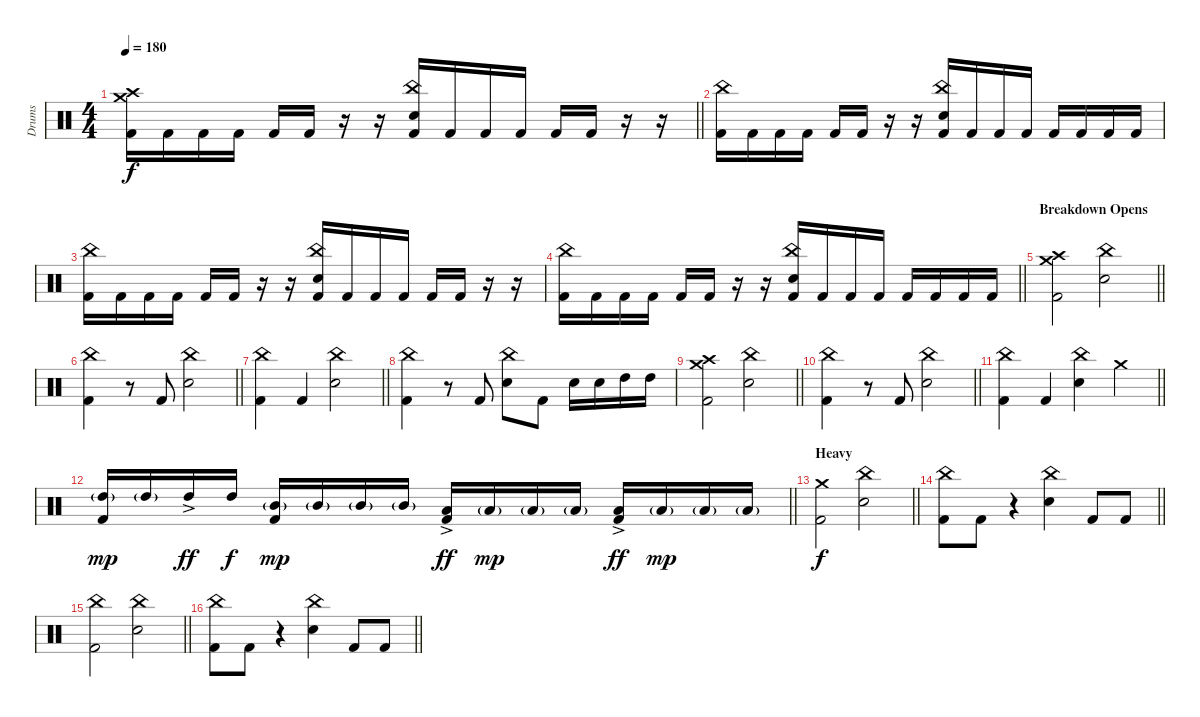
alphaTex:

\track ("Drums" "Drums") {instrument percussion}
\staff {score}
\articulation defaults
\ts (4 4)
\tempo 180
\clef neutral
\barLineRight lightlight
\ks c
("Crash medium (hit)" "Crash high (hit)" "Kick (hit) 2").16{dy f} "Kick (hit) 2".16 "Kick (hit) 2".16 "Kick (hit) 2".16 "Kick (hit) 2".16 "Kick (hit) 2".16 r.16 r.16 ("China (hit)" "Snare (hit) 2" "Kick (hit) 2").16 "Kick (hit) 2".16 "Kick (hit) 2".16 "Kick (hit) 2".16 "Kick (hit) 2".16 "Kick (hit) 2".16 r.16 r.16 |
("China (hit)" "Kick (hit) 2").16 "Kick (hit) 2".16 "Kick (hit) 2".16 "Kick (hit) 2".16 "Kick (hit) 2".16 "Kick (hit) 2".16 r.16 r.16 ("China (hit)" "Snare (hit) 2" "Kick (hit) 2").16 "Kick (hit) 2".16 "Kick (hit) 2".16 "Kick (hit) 2".16 "Kick (hit) 2".16 "Kick (hit) 2".16 "Kick (hit) 2".16 "Kick (hit) 2".16 |
("China (hit)" "Kick (hit) 2").16 "Kick (hit) 2".16 "Kick (hit) 2".16 "Kick (hit) 2".16 "Kick (hit) 2".16 "Kick (hit) 2".16 r.16 r.16 ("China (hit)" "Snare (hit) 2" "Kick (hit) 2").16 "Kick (hit) 2".16 "Kick (hit) 2".16 "Kick (hit) 2".16 "Kick (hit) 2".16 "Kick (hit) 2".16 r.16 r.16 |
\barLineRight lightlight
("China (hit)" "Kick (hit) 2").16 "Kick (hit) 2".16 "Kick (hit) 2".16 "Kick (hit) 2".16 "Kick (hit) 2".16 "Kick (hit) 2".16 r.16 r.16 ("China (hit)" "Snare (hit) 2" "Kick (hit) 2").16 "Kick (hit) 2".16 "Kick (hit) 2".16 "Kick (hit) 2".16 "Kick (hit) 2".16 "Kick (hit) 2".16 "Kick (hit) 2".16 "Kick (hit) 2".16 |
\section ("" "Breakdown Opens")
\barLineRight lightlight
("Crash medium (hit)" "Crash high (hit)" "Kick (hit) 2").2 ("China (hit)" "Snare (hit) 2").2 |
\barLineRight lightlight
("China (hit)" "Kick (hit) 2").4 r.8 "Kick (hit) 2".8 ("China (hit)" "Snare (hit) 2").2 |
\barLineRight lightlight
("China (hit)" "Kick (hit) 2").4 "Kick (hit) 2".4 ("China (hit)" "Snare (hit) 2").2 |
("China (hit)" "Kick (hit) 2").4 r.8 "Kick (hit) 2".8 ("China (hit)" "Snare (hit) 2").8 "Kick (hit) 2".8 "Snare (hit) 2".16 "Snare (hit) 2".16 "High Tom (hit)".16 "High Tom (hit)".16 |
\barLineRight lightlight
("Crash medium (hit)" "Crash high (hit)" "Kick (hit) 2").2 ("China (hit)" "Snare (hit) 2").2 |
\barLineRight lightlight
("China (hit)" "Kick (hit) 2").4 r.8 "Kick (hit) 2".8 ("China (hit)" "Snare (hit) 2").2 |
\barLineRight lightlight
("China (hit)" "Kick (hit) 2").4 "Kick (hit) 2".4 ("China (hit)" "Snare (hit) 2").4 "Crash medium (hit)".4 |
\barLineRight lightlight
("High Tom (hit)"{g} "Kick (hit) 2").16{dy mp} "High Tom (hit)"{g}.16 "High Tom (hit)"{ac}.16{dy ff} "High Tom (hit)".16{dy f} ("Mid Tom (hit)"{g} "Kick (hit) 2").16{dy mp} "Mid Tom (hit)"{g}.16 "Mid Tom (hit)"{g}.16 "Mid Tom (hit)"{g}.16 ("Low Tom (hit)"{ac} "Kick (hit) 2").16{dy ff} "Low Tom (hit)"{g}.16{dy mp} "Low Tom (hit)"{g}.16 "Low Tom (hit)"{g}.16 ("Low Tom (hit)"{ac} "Kick (hit) 2").16{dy ff} "Low Tom (hit)"{g}.16{dy mp} "Low Tom (hit)"{g}.16 "Low Tom (hit)"{g}.16 |
\section ("" "Heavy")
\barLineRight lightlight
("Crash medium (hit)" "Kick (hit) 2").2{dy f} ("China (hit)" "Snare (hit) 2").2 |
\barLineRight lightlight
("China (hit)" "Kick (hit) 2").8 "Kick (hit) 2".8 r.4 ("China (hit)" "Snare (hit) 2").4 "Kick (hit) 2".8 "Kick (hit) 2".8 |
\barLineRight lightlight
("China (hit)" "Kick (hit) 2").2 ("China (hit)" "Snare (hit) 2").2 |
\barLineRight lightlight
("China (hit)" "Kick (hit) 2").8 "Kick (hit) 2".8 r.4 ("China (hit)" "Snare (hit) 2").4 "Kick (hit) 2".8 "Kick (hit) 2".8
